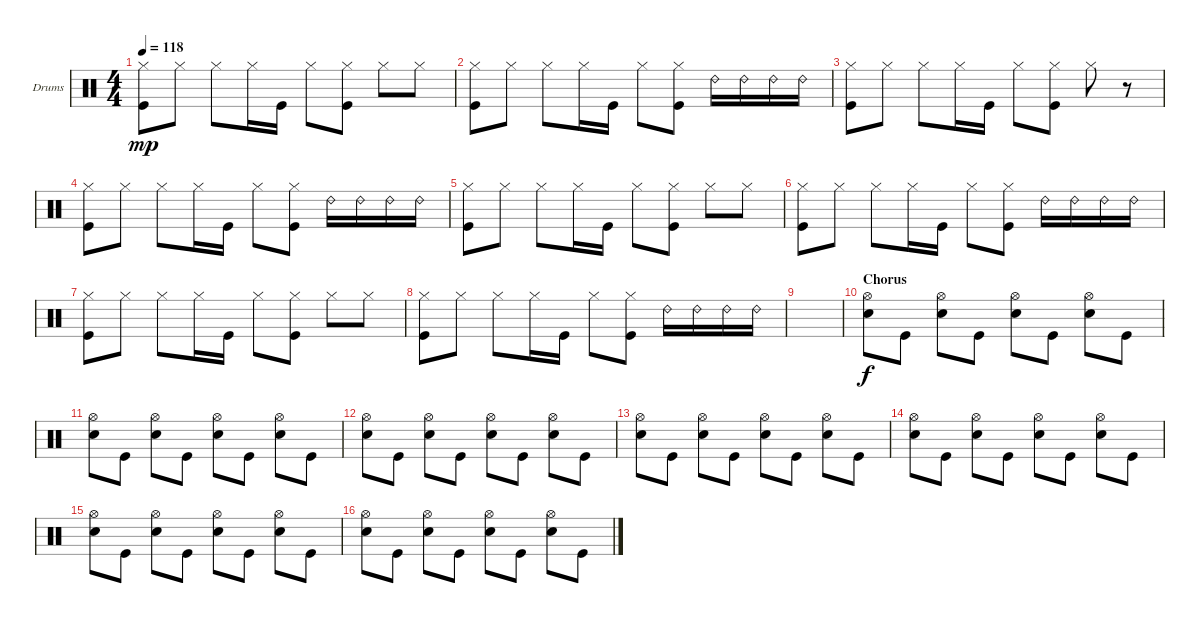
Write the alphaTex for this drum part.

\defaultSystemsLayout 4
\bracketExtendMode groupsimilarinstruments
\firstSystemTrackNameOrientation horizontal
\otherSystemsTrackNameOrientation horizontal
\track ("Drumkit" "Drums") {instrument percussion}
\staff {score}
\articulation defaults
\ts (4 4)
\tempo 118
\clef neutral
\ks c
("Hi-Hat (closed)" "Kick (hit)").8{dy mp} "Hi-Hat (closed)".8 "Hi-Hat (closed)".8 "Hi-Hat (closed)".16 "Kick (hit)".16 "Hi-Hat (closed)".8 ("Kick (hit)" "Hi-Hat (closed)").8 "Hi-Hat (closed)".8 "Hi-Hat (closed)".8 |
("Hi-Hat (closed)" "Kick (hit)").8 "Hi-Hat (closed)".8 "Hi-Hat (closed)".8 "Hi-Hat (closed)".16 "Kick (hit)".16 "Hi-Hat (closed)".8 ("Kick (hit)" "Hi-Hat (closed)").8 "Ride (bell) 2".16 "Ride (bell) 2".16 "Ride (bell) 2".16 "Ride (bell) 2".16 |
("Hi-Hat (closed)" "Kick (hit)").8 "Hi-Hat (closed)".8 "Hi-Hat (closed)".8 "Hi-Hat (closed)".16 "Kick (hit)".16 "Hi-Hat (closed)".8 ("Kick (hit)" "Hi-Hat (closed)").8 "Hi-Hat (closed)".8 r.8 |
("Hi-Hat (closed)" "Kick (hit)").8 "Hi-Hat (closed)".8 "Hi-Hat (closed)".8 "Hi-Hat (closed)".16 "Kick (hit)".16 "Hi-Hat (closed)".8 ("Kick (hit)" "Hi-Hat (closed)").8 "Ride (bell) 2".16 "Ride (bell) 2".16 "Ride (bell) 2".16 "Ride (bell) 2".16 |
("Hi-Hat (closed)" "Kick (hit)").8 "Hi-Hat (closed)".8 "Hi-Hat (closed)".8 "Hi-Hat (closed)".16 "Kick (hit)".16 "Hi-Hat (closed)".8 ("Kick (hit)" "Hi-Hat (closed)").8 "Hi-Hat (closed)".8 "Hi-Hat (closed)".8 |
("Hi-Hat (closed)" "Kick (hit)").8 "Hi-Hat (closed)".8 "Hi-Hat (closed)".8 "Hi-Hat (closed)".16 "Kick (hit)".16 "Hi-Hat (closed)".8 ("Kick (hit)" "Hi-Hat (closed)").8 "Ride (bell) 2".16 "Ride (bell) 2".16 "Ride (bell) 2".16 "Ride (bell) 2".16 |
("Hi-Hat (closed)" "Kick (hit)").8 "Hi-Hat (closed)".8 "Hi-Hat (closed)".8 "Hi-Hat (closed)".16 "Kick (hit)".16 "Hi-Hat (closed)".8 ("Kick (hit)" "Hi-Hat (closed)").8 "Hi-Hat (closed)".8 "Hi-Hat (closed)".8 |
("Hi-Hat (closed)" "Kick (hit)").8 "Hi-Hat (closed)".8 "Hi-Hat (closed)".8 "Hi-Hat (closed)".16 "Kick (hit)".16 "Hi-Hat (closed)".8 ("Kick (hit)" "Hi-Hat (closed)").8 "Ride (bell) 2".16 "Ride (bell) 2".16 "Ride (bell) 2".16 "Ride (bell) 2".16 |
|
\section ("" "Chorus")
("Snare (hit) 2" "Hi-Hat (open)").8{dy f} "Kick (hit)".8 ("Snare (hit) 2" "Hi-Hat (open)").8 "Kick (hit)".8 ("Hi-Hat (open)" "Snare (hit) 2").8 "Kick (hit)".8 ("Hi-Hat (open)" "Snare (hit) 2").8 "Kick (hit)".8 |
("Snare (hit) 2" "Hi-Hat (open)").8 "Kick (hit)".8 ("Snare (hit) 2" "Hi-Hat (open)").8 "Kick (hit)".8 ("Hi-Hat (open)" "Snare (hit) 2").8 "Kick (hit)".8 ("Hi-Hat (open)" "Snare (hit) 2").8 "Kick (hit)".8 |
("Snare (hit) 2" "Hi-Hat (open)").8 "Kick (hit)".8 ("Snare (hit) 2" "Hi-Hat (open)").8 "Kick (hit)".8 ("Hi-Hat (open)" "Snare (hit) 2").8 "Kick (hit)".8 ("Hi-Hat (open)" "Snare (hit) 2").8 "Kick (hit)".8 |
("Snare (hit) 2" "Hi-Hat (open)").8 "Kick (hit)".8 ("Snare (hit) 2" "Hi-Hat (open)").8 "Kick (hit)".8 ("Hi-Hat (open)" "Snare (hit) 2").8 "Kick (hit)".8 ("Hi-Hat (open)" "Snare (hit) 2").8 "Kick (hit)".8 |
("Snare (hit) 2" "Hi-Hat (open)").8 "Kick (hit)".8 ("Snare (hit) 2" "Hi-Hat (open)").8 "Kick (hit)".8 ("Hi-Hat (open)" "Snare (hit) 2").8 "Kick (hit)".8 ("Hi-Hat (open)" "Snare (hit) 2").8 "Kick (hit)".8 |
("Snare (hit) 2" "Hi-Hat (open)").8 "Kick (hit)".8 ("Snare (hit) 2" "Hi-Hat (open)").8 "Kick (hit)".8 ("Hi-Hat (open)" "Snare (hit) 2").8 "Kick (hit)".8 ("Hi-Hat (open)" "Snare (hit) 2").8 "Kick (hit)".8 |
("Snare (hit) 2" "Hi-Hat (open)").8 "Kick (hit)".8 ("Snare (hit) 2" "Hi-Hat (open)").8 "Kick (hit)".8 ("Hi-Hat (open)" "Snare (hit) 2").8 "Kick (hit)".8 ("Hi-Hat (open)" "Snare (hit) 2").8 "Kick (hit)".8
